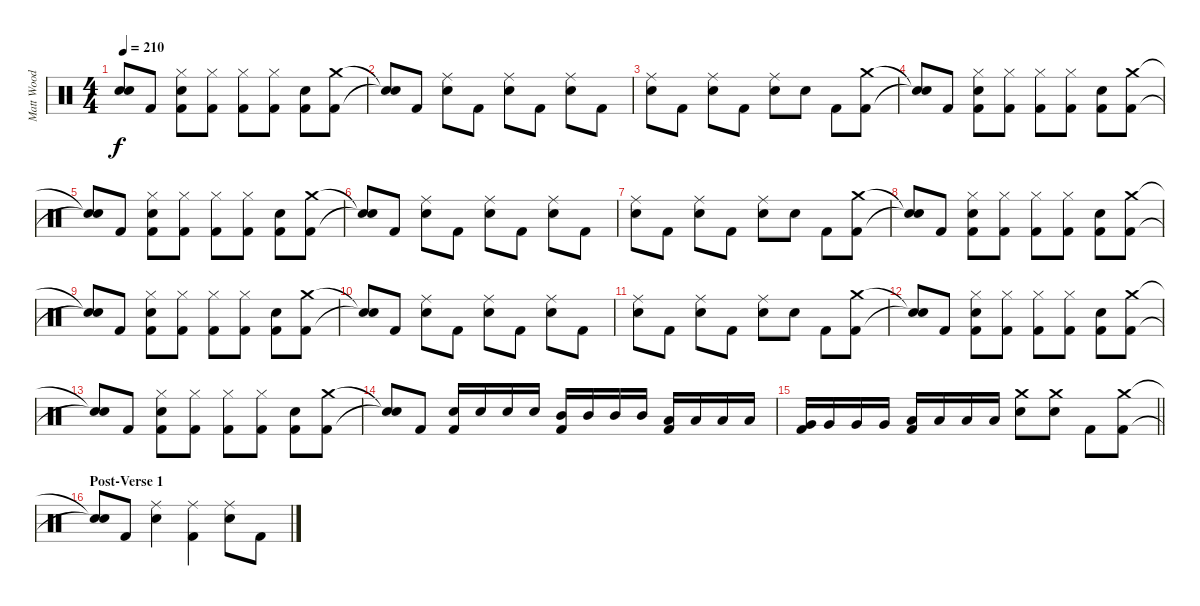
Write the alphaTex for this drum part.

\track ("Matt Wood" "Matt Wood") {instrument percussion}
\staff {score}
\articulation defaults
\ts (4 4)
\tempo 210
\clef neutral
\ks c
("Snare (hit)"{t} "Snare (hit)"{t}).8{dy f} "Kick (hit) 2".8 ("Hi-Hat (closed)" "Snare (hit) 2" "Kick (hit) 2").8 ("Hi-Hat (closed)" "Kick (hit) 2").8 ("Hi-Hat (closed)" "Kick (hit) 2").8 ("Hi-Hat (closed)" "Kick (hit) 2").8 ("Snare (hit) 2" "Kick (hit) 2").8 ("Crash medium (hit)" "Kick (hit) 2").8 |
("Snare (hit)"{t} "Snare (hit)"{t}).8 "Kick (hit) 2".8 ("Ride (middle)" "Snare (hit) 2").8 "Kick (hit) 2".8 ("Ride (middle)" "Snare (hit) 2").8 "Kick (hit) 2".8 ("Ride (middle)" "Snare (hit) 2").8 "Kick (hit) 2".8 |
("Ride (middle)" "Snare (hit) 2").8 "Kick (hit) 2".8 ("Ride (middle)" "Snare (hit) 2").8 "Kick (hit) 2".8 ("Ride (middle)" "Snare (hit) 2").8 "Snare (hit) 2".8 "Kick (hit) 2".8 ("Crash medium (hit)" "Kick (hit) 2").8 |
("Snare (hit)"{t} "Snare (hit)"{t}).8 "Kick (hit) 2".8 ("Hi-Hat (closed)" "Snare (hit) 2" "Kick (hit) 2").8 ("Hi-Hat (closed)" "Kick (hit) 2").8 ("Hi-Hat (closed)" "Kick (hit) 2").8 ("Hi-Hat (closed)" "Kick (hit) 2").8 ("Snare (hit) 2" "Kick (hit) 2").8 ("Crash medium (hit)" "Kick (hit) 2").8 |
("Snare (hit)"{t} "Snare (hit)"{t}).8 "Kick (hit) 2".8 ("Hi-Hat (closed)" "Snare (hit) 2" "Kick (hit) 2").8 ("Hi-Hat (closed)" "Kick (hit) 2").8 ("Hi-Hat (closed)" "Kick (hit) 2").8 ("Hi-Hat (closed)" "Kick (hit) 2").8 ("Snare (hit) 2" "Kick (hit) 2").8 ("Crash medium (hit)" "Kick (hit) 2").8 |
("Snare (hit)"{t} "Snare (hit)"{t}).8 "Kick (hit) 2".8 ("Ride (middle)" "Snare (hit) 2").8 "Kick (hit) 2".8 ("Ride (middle)" "Snare (hit) 2").8 "Kick (hit) 2".8 ("Ride (middle)" "Snare (hit) 2").8 "Kick (hit) 2".8 |
("Ride (middle)" "Snare (hit) 2").8 "Kick (hit) 2".8 ("Ride (middle)" "Snare (hit) 2").8 "Kick (hit) 2".8 ("Ride (middle)" "Snare (hit) 2").8 "Snare (hit) 2".8 "Kick (hit) 2".8 ("Crash medium (hit)" "Kick (hit) 2").8 |
("Snare (hit)"{t} "Snare (hit)"{t}).8 "Kick (hit) 2".8 ("Hi-Hat (closed)" "Snare (hit) 2" "Kick (hit) 2").8 ("Hi-Hat (closed)" "Kick (hit) 2").8 ("Hi-Hat (closed)" "Kick (hit) 2").8 ("Hi-Hat (closed)" "Kick (hit) 2").8 ("Snare (hit) 2" "Kick (hit) 2").8 ("Crash medium (hit)" "Kick (hit) 2").8 |
("Snare (hit)"{t} "Snare (hit)"{t}).8 "Kick (hit) 2".8 ("Hi-Hat (closed)" "Snare (hit) 2" "Kick (hit) 2").8 ("Hi-Hat (closed)" "Kick (hit) 2").8 ("Hi-Hat (closed)" "Kick (hit) 2").8 ("Hi-Hat (closed)" "Kick (hit) 2").8 ("Snare (hit) 2" "Kick (hit) 2").8 ("Crash medium (hit)" "Kick (hit) 2").8 |
("Snare (hit)"{t} "Snare (hit)"{t}).8 "Kick (hit) 2".8 ("Ride (middle)" "Snare (hit) 2").8 "Kick (hit) 2".8 ("Ride (middle)" "Snare (hit) 2").8 "Kick (hit) 2".8 ("Ride (middle)" "Snare (hit) 2").8 "Kick (hit) 2".8 |
("Ride (middle)" "Snare (hit) 2").8 "Kick (hit) 2".8 ("Ride (middle)" "Snare (hit) 2").8 "Kick (hit) 2".8 ("Ride (middle)" "Snare (hit) 2").8 "Snare (hit) 2".8 "Kick (hit) 2".8 ("Crash medium (hit)" "Kick (hit) 2").8 |
("Snare (hit)"{t} "Snare (hit)"{t}).8 "Kick (hit) 2".8 ("Hi-Hat (closed)" "Snare (hit) 2" "Kick (hit) 2").8 ("Hi-Hat (closed)" "Kick (hit) 2").8 ("Hi-Hat (closed)" "Kick (hit) 2").8 ("Hi-Hat (closed)" "Kick (hit) 2").8 ("Snare (hit) 2" "Kick (hit) 2").8 ("Crash medium (hit)" "Kick (hit) 2").8 |
("Snare (hit)"{t} "Snare (hit)"{t}).8 "Kick (hit) 2".8 ("Hi-Hat (closed)" "Snare (hit) 2" "Kick (hit) 2").8 ("Hi-Hat (closed)" "Kick (hit) 2").8 ("Hi-Hat (closed)" "Kick (hit) 2").8 ("Hi-Hat (closed)" "Kick (hit) 2").8 ("Snare (hit) 2" "Kick (hit) 2").8 ("Crash medium (hit)" "Kick (hit) 2").8 |
("Snare (hit)"{t} "Snare (hit)"{t}).8 "Kick (hit) 2".8 ("Snare (hit) 2" "Kick (hit) 2").16 "Snare (hit) 2".16 "Snare (hit) 2".16 "Snare (hit) 2".16 ("Mid Tom (hit)" "Kick (hit) 2").16 "Mid Tom (hit)".16 "Mid Tom (hit)".16 "Mid Tom (hit)".16 ("Low Tom (hit)" "Kick (hit) 2").16 "Low Tom (hit)".16 "Low Tom (hit)".16 "Low Tom (hit)".16 |
\barLineRight lightlight
("Very Low Tom (hit)" "Kick (hit) 2").16 "Very Low Tom (hit)".16 "Very Low Tom (hit)".16 "Very Low Tom (hit)".16 ("Low Floor Tom (hit)" "Kick (hit) 2").16 "Low Floor Tom (hit)".16 "Low Floor Tom (hit)".16 "Low Floor Tom (hit)".16 ("Crash medium (hit)" "Snare (hit) 2").8 ("Crash medium (hit)" "Snare (hit) 2").8 "Kick (hit) 2".8 ("Crash medium (hit)" "Kick (hit) 2").8 |
\section ("" "Post-Verse 1")
("Snare (hit)"{t} "Snare (hit)"{t}).8 "Kick (hit) 2".8 ("Ride (middle)" "Snare (hit) 2").4 ("Ride (middle)" "Kick (hit) 2").4 ("Ride (middle)" "Snare (hit) 2").8 "Kick (hit) 2".8
